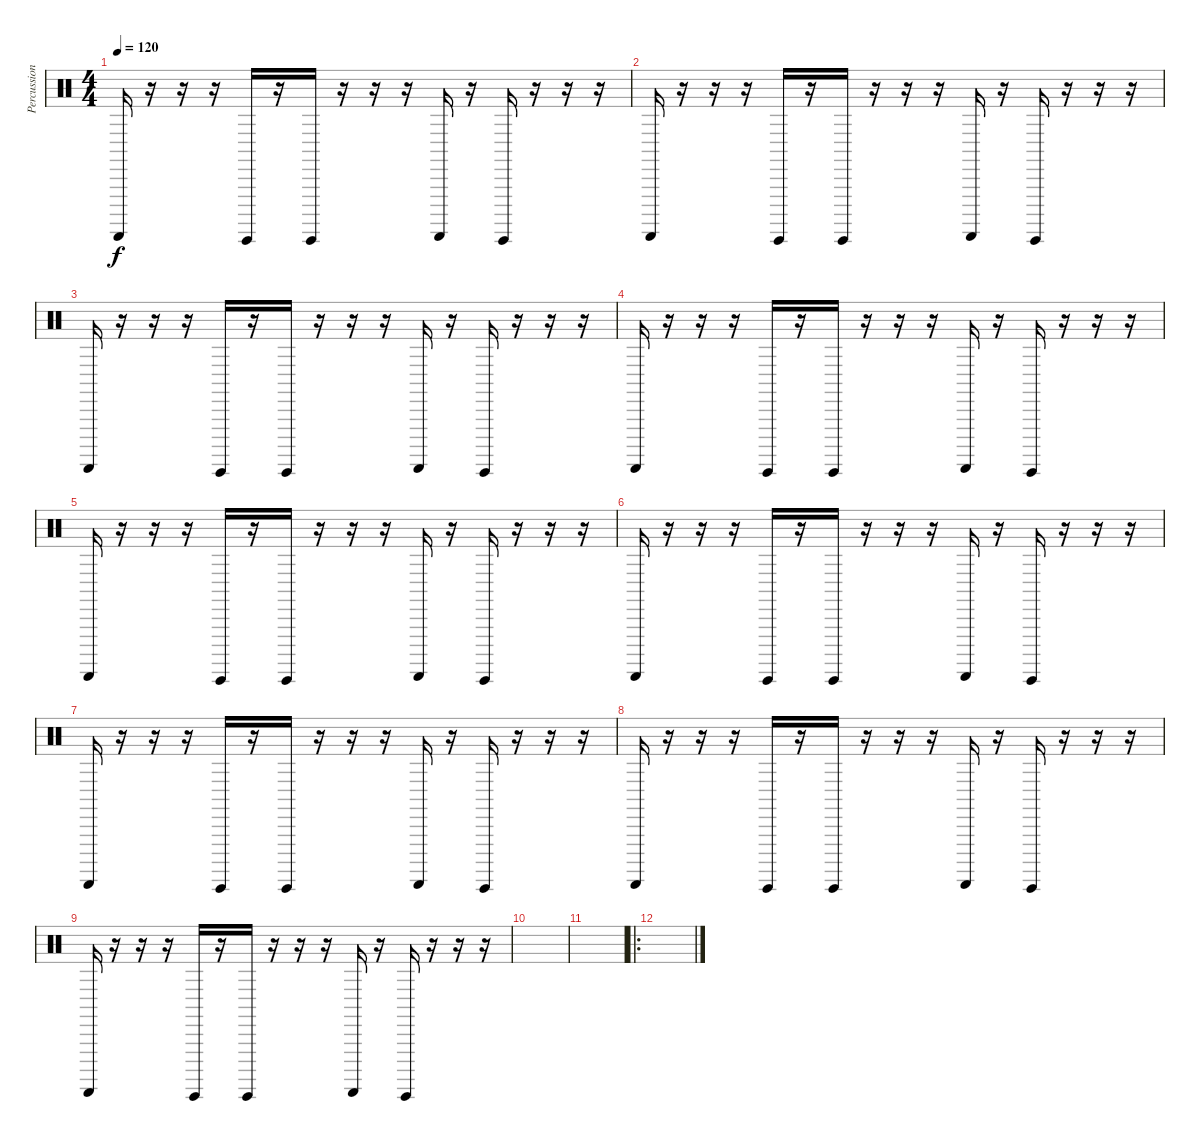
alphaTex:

\track ("Percussion" "Percussion") {instrument percussion}
\staff {score}
\articulation defaults
\ts (4 4)
\tempo 120
\clef neutral
\ks c "Guiro (scrap-return)".16{dy f}
r.16 r.16 r.16 "Guiro (hit)".16 r.16 "Guiro (hit)".16 r.16 r.16 r.16 "Guiro (scrap-return)".16 r.16 "Guiro (hit)".16 r.16 r.16 r.16 |
"Guiro (scrap-return)".16 r.16 r.16 r.16 "Guiro (hit)".16 r.16 "Guiro (hit)".16 r.16 r.16 r.16 "Guiro (scrap-return)".16 r.16 "Guiro (hit)".16 r.16 r.16 r.16 |
"Guiro (scrap-return)".16 r.16 r.16 r.16 "Guiro (hit)".16 r.16 "Guiro (hit)".16 r.16 r.16 r.16 "Guiro (scrap-return)".16 r.16 "Guiro (hit)".16 r.16 r.16 r.16 |
"Guiro (scrap-return)".16 r.16 r.16 r.16 "Guiro (hit)".16 r.16 "Guiro (hit)".16 r.16 r.16 r.16 "Guiro (scrap-return)".16 r.16 "Guiro (hit)".16 r.16 r.16 r.16 |
"Guiro (scrap-return)".16 r.16 r.16 r.16 "Guiro (hit)".16 r.16 "Guiro (hit)".16 r.16 r.16 r.16 "Guiro (scrap-return)".16 r.16 "Guiro (hit)".16 r.16 r.16 r.16 |
"Guiro (scrap-return)".16 r.16 r.16 r.16 "Guiro (hit)".16 r.16 "Guiro (hit)".16 r.16 r.16 r.16 "Guiro (scrap-return)".16 r.16 "Guiro (hit)".16 r.16 r.16 r.16 |
"Guiro (scrap-return)".16 r.16 r.16 r.16 "Guiro (hit)".16 r.16 "Guiro (hit)".16 r.16 r.16 r.16 "Guiro (scrap-return)".16 r.16 "Guiro (hit)".16 r.16 r.16 r.16 |
"Guiro (scrap-return)".16 r.16 r.16 r.16 "Guiro (hit)".16 r.16 "Guiro (hit)".16 r.16 r.16 r.16 "Guiro (scrap-return)".16 r.16 "Guiro (hit)".16 r.16 r.16 r.16 |
"Guiro (scrap-return)".16 r.16 r.16 r.16 "Guiro (hit)".16 r.16 "Guiro (hit)".16 r.16 r.16 r.16 "Guiro (scrap-return)".16 r.16 "Guiro (hit)".16 r.16 r.16 r.16 |
|
|
\ro
